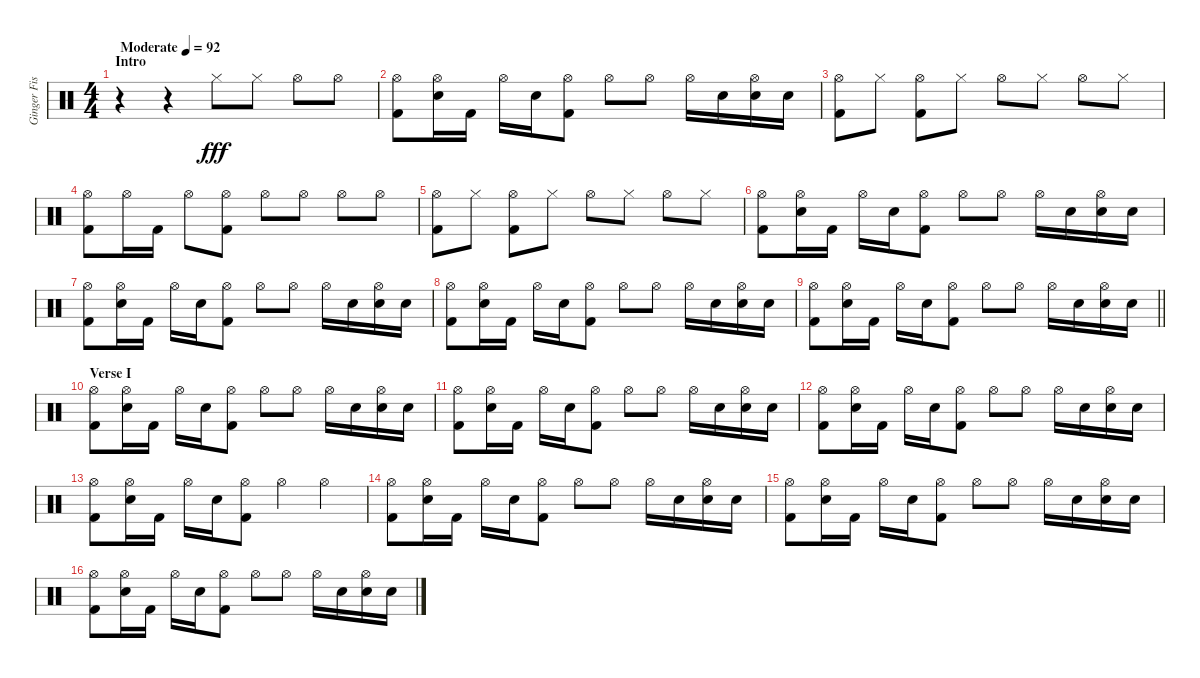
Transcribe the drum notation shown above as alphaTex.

\track ("Ginger Fish" "Ginger Fis") {instrument percussion}
\staff {score}
\articulation defaults
\ts (4 4)
\section ("" "Intro")
\tempo (92 "Moderate")
\clef neutral
\ks c
r.4{dy fff} r.4 "Hi-Hat (closed)".8 "Hi-Hat (closed)".8 "Hi-Hat (open)".8 "Hi-Hat (open)".8 |
("Hi-Hat (open)" "Kick (hit) 2").8 ("Hi-Hat (open)" "Electric Snare (hit)").16 "Kick (hit) 2".16 "Hi-Hat (open)".16 "Electric Snare (hit)".16 ("Hi-Hat (open)" "Kick (hit) 2").8 "Hi-Hat (open)".8 "Hi-Hat (open)".8 "Hi-Hat (open)".16 "Electric Snare (hit)".16 ("Hi-Hat (open)" "Electric Snare (hit)").16 "Electric Snare (hit)".16 |
("Hi-Hat (open)" "Kick (hit) 2").8 "Hi-Hat (closed)".8 ("Hi-Hat (open)" "Kick (hit) 2").8 "Hi-Hat (closed)".8 "Hi-Hat (open)".8 "Hi-Hat (closed)".8 "Hi-Hat (open)".8 "Hi-Hat (closed)".8 |
("Hi-Hat (open)" "Kick (hit) 2").8 "Hi-Hat (open)".16 "Kick (hit) 2".16 "Hi-Hat (open)".8 ("Hi-Hat (open)" "Kick (hit) 2").8 "Hi-Hat (open)".8 "Hi-Hat (open)".8 "Hi-Hat (open)".8 "Hi-Hat (open)".8 |
("Hi-Hat (open)" "Kick (hit) 2").8 "Hi-Hat (closed)".8 ("Hi-Hat (open)" "Kick (hit) 2").8 "Hi-Hat (closed)".8 "Hi-Hat (open)".8 "Hi-Hat (closed)".8 "Hi-Hat (open)".8 "Hi-Hat (closed)".8 |
("Hi-Hat (open)" "Kick (hit) 2").8 ("Hi-Hat (open)" "Electric Snare (hit)").16 "Kick (hit) 2".16 "Hi-Hat (open)".16 "Electric Snare (hit)".16 ("Hi-Hat (open)" "Kick (hit) 2").8 "Hi-Hat (open)".8 "Hi-Hat (open)".8 "Hi-Hat (open)".16 "Electric Snare (hit)".16 ("Hi-Hat (open)" "Electric Snare (hit)").16 "Electric Snare (hit)".16 |
("Hi-Hat (open)" "Kick (hit) 2").8 ("Hi-Hat (open)" "Electric Snare (hit)").16 "Kick (hit) 2".16 "Hi-Hat (open)".16 "Electric Snare (hit)".16 ("Hi-Hat (open)" "Kick (hit) 2").8 "Hi-Hat (open)".8 "Hi-Hat (open)".8 "Hi-Hat (open)".16 "Electric Snare (hit)".16 ("Hi-Hat (open)" "Electric Snare (hit)").16 "Electric Snare (hit)".16 |
("Hi-Hat (open)" "Kick (hit) 2").8 ("Hi-Hat (open)" "Electric Snare (hit)").16 "Kick (hit) 2".16 "Hi-Hat (open)".16 "Electric Snare (hit)".16 ("Hi-Hat (open)" "Kick (hit) 2").8 "Hi-Hat (open)".8 "Hi-Hat (open)".8 "Hi-Hat (open)".16 "Electric Snare (hit)".16 ("Hi-Hat (open)" "Electric Snare (hit)").16 "Electric Snare (hit)".16 |
\barLineRight lightlight
("Hi-Hat (open)" "Kick (hit) 2").8 ("Hi-Hat (open)" "Electric Snare (hit)").16 "Kick (hit) 2".16 "Hi-Hat (open)".16 "Electric Snare (hit)".16 ("Hi-Hat (open)" "Kick (hit) 2").8 "Hi-Hat (open)".8 "Hi-Hat (open)".8 "Hi-Hat (open)".16 "Electric Snare (hit)".16 ("Hi-Hat (open)" "Electric Snare (hit)").16 "Electric Snare (hit)".16 |
\section ("" "Verse I")
("Hi-Hat (open)" "Kick (hit) 2").8 ("Hi-Hat (open)" "Electric Snare (hit)").16 "Kick (hit) 2".16 "Hi-Hat (open)".16 "Electric Snare (hit)".16 ("Hi-Hat (open)" "Kick (hit) 2").8 "Hi-Hat (open)".8 "Hi-Hat (open)".8 "Hi-Hat (open)".16 "Electric Snare (hit)".16 ("Hi-Hat (open)" "Electric Snare (hit)").16 "Electric Snare (hit)".16 |
("Hi-Hat (open)" "Kick (hit) 2").8 ("Hi-Hat (open)" "Electric Snare (hit)").16 "Kick (hit) 2".16 "Hi-Hat (open)".16 "Electric Snare (hit)".16 ("Hi-Hat (open)" "Kick (hit) 2").8 "Hi-Hat (open)".8 "Hi-Hat (open)".8 "Hi-Hat (open)".16 "Electric Snare (hit)".16 ("Hi-Hat (open)" "Electric Snare (hit)").16 "Electric Snare (hit)".16 |
("Hi-Hat (open)" "Kick (hit) 2").8 ("Hi-Hat (open)" "Electric Snare (hit)").16 "Kick (hit) 2".16 "Hi-Hat (open)".16 "Electric Snare (hit)".16 ("Hi-Hat (open)" "Kick (hit) 2").8 "Hi-Hat (open)".8 "Hi-Hat (open)".8 "Hi-Hat (open)".16 "Electric Snare (hit)".16 ("Hi-Hat (open)" "Electric Snare (hit)").16 "Electric Snare (hit)".16 |
("Hi-Hat (open)" "Kick (hit) 2").8 ("Hi-Hat (open)" "Electric Snare (hit)").16 "Kick (hit) 2".16 "Hi-Hat (open)".16 "Electric Snare (hit)".16 ("Hi-Hat (open)" "Kick (hit) 2").8 "Hi-Hat (open)".4 "Hi-Hat (open)".4 |
("Hi-Hat (open)" "Kick (hit) 2").8 ("Hi-Hat (open)" "Electric Snare (hit)").16 "Kick (hit) 2".16 "Hi-Hat (open)".16 "Electric Snare (hit)".16 ("Hi-Hat (open)" "Kick (hit) 2").8 "Hi-Hat (open)".8 "Hi-Hat (open)".8 "Hi-Hat (open)".16 "Electric Snare (hit)".16 ("Hi-Hat (open)" "Electric Snare (hit)").16 "Electric Snare (hit)".16 |
("Hi-Hat (open)" "Kick (hit) 2").8 ("Hi-Hat (open)" "Electric Snare (hit)").16 "Kick (hit) 2".16 "Hi-Hat (open)".16 "Electric Snare (hit)".16 ("Hi-Hat (open)" "Kick (hit) 2").8 "Hi-Hat (open)".8 "Hi-Hat (open)".8 "Hi-Hat (open)".16 "Electric Snare (hit)".16 ("Hi-Hat (open)" "Electric Snare (hit)").16 "Electric Snare (hit)".16 |
("Hi-Hat (open)" "Kick (hit) 2").8 ("Hi-Hat (open)" "Electric Snare (hit)").16 "Kick (hit) 2".16 "Hi-Hat (open)".16 "Electric Snare (hit)".16 ("Hi-Hat (open)" "Kick (hit) 2").8 "Hi-Hat (open)".8 "Hi-Hat (open)".8 "Hi-Hat (open)".16 "Electric Snare (hit)".16 ("Hi-Hat (open)" "Electric Snare (hit)").16 "Electric Snare (hit)".16
